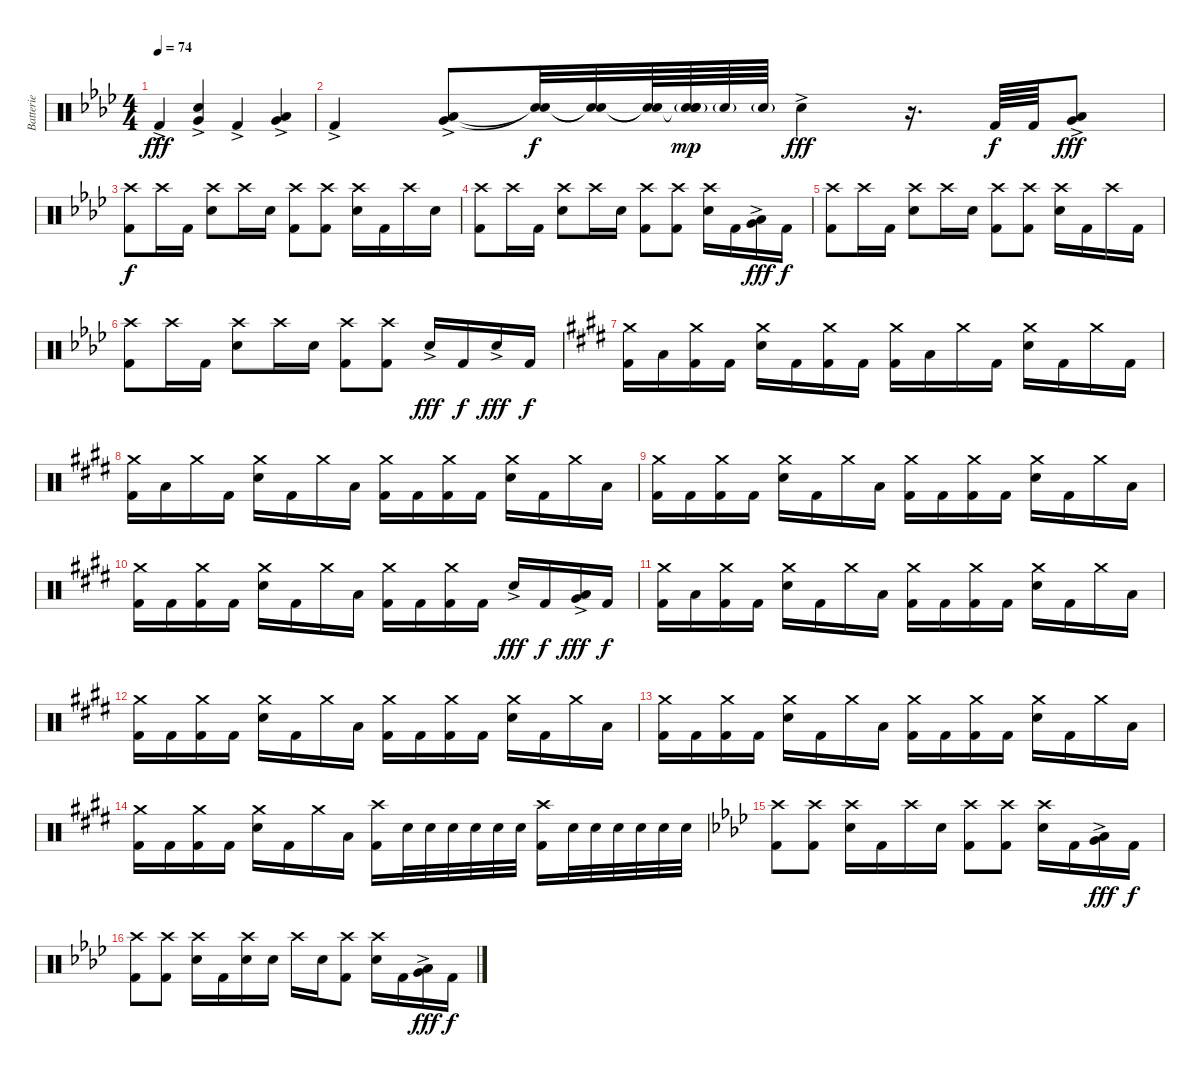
\track ("Batterie" "Batterie") {instrument percussion}
\staff {score}
\articulation defaults
\ts (4 4)
\tempo 74
\clef neutral
\ks fminor "Kick (hit) 2"{ac}.4{dy fff}
("Snare (hit) 2" "Very Low Tom (hit)"{ac}).4 "Kick (hit) 2"{ac}.4 ("Low Tom (hit)" "Very Low Tom (hit)"{ac}).4 |
"Kick (hit) 2"{ac}.4 ("Low Tom (hit)" "Very Low Tom (hit)"{ac}).8 ("Snare (hit)"{t} "Snare (hit)"{t}).32{dy f} ("Snare (hit)"{t} "Snare (hit)"{t}).32 ("Snare (hit)"{t} "Snare (hit)"{t}).64 ("Snare (hit) 2"{g} "Snare (hit)"{t} "Snare (hit)"{t}).64{dy mp} "Snare (hit) 2"{g}.64 "Snare (hit) 2"{g}.64 "Snare (hit) 2"{ac}.4{dy fff} r.16{d} "Kick (hit) 2".64{dy f} "Kick (hit) 2".64 ("Low Tom (hit)"{ac} "Very Low Tom (hit)"{ac}).8{dy fff} |
("Crash high (hit)" "Kick (hit) 2").8{dy f} "Crash high (hit)".16 "Kick (hit) 2".16 ("Crash high (hit)" "Snare (hit) 2").8 "Crash high (hit)".16 "Snare (hit) 2".16 ("Crash high (hit)" "Kick (hit) 2").8 ("Crash high (hit)" "Kick (hit) 2").8 ("Crash high (hit)" "Snare (hit) 2").16 "Kick (hit) 2".16 "Crash high (hit)".16 "Snare (hit) 2".16 |
("Crash high (hit)" "Kick (hit) 2").8 "Crash high (hit)".16 "Kick (hit) 2".16 ("Crash high (hit)" "Snare (hit) 2").8 "Crash high (hit)".16 "Snare (hit) 2".16 ("Crash high (hit)" "Kick (hit) 2").8 ("Crash high (hit)" "Kick (hit) 2").8 ("Crash high (hit)" "Snare (hit) 2").16 "Kick (hit) 2".16 ("Low Tom (hit)" "Very Low Tom (hit)"{ac}).16{dy fff} "Kick (hit) 2".16{dy f} |
("Crash high (hit)" "Kick (hit) 2").8 "Crash high (hit)".16 "Kick (hit) 2".16 ("Crash high (hit)" "Snare (hit) 2").8 "Crash high (hit)".16 "Snare (hit) 2".16 ("Crash high (hit)" "Kick (hit) 2").8 ("Crash high (hit)" "Kick (hit) 2").8 ("Crash high (hit)" "Snare (hit) 2").16 "Kick (hit) 2".16 "Crash high (hit)".16 "Kick (hit) 2".16 |
("Crash high (hit)" "Kick (hit) 2").8 "Crash high (hit)".16 "Kick (hit) 2".16 ("Crash high (hit)" "Snare (hit) 2").8 "Crash high (hit)".16 "Snare (hit) 2".16 ("Crash high (hit)" "Kick (hit) 2").8 ("Crash high (hit)" "Kick (hit) 2").8 "Snare (hit) 2"{ac}.16{dy fff} "Kick (hit) 2".16{dy f} "Snare (hit) 2"{ac}.16{dy fff} "Kick (hit) 2".16{dy f} |
\section ("" "")
\ks c#minor
("Crash medium (hit)" "Kick (hit) 2").16 "Low Tom (hit)".16 ("Crash medium (hit)" "Kick (hit) 2").16 "Kick (hit) 2".16 ("Crash medium (hit)" "Snare (hit) 2").16 "Kick (hit) 2".16 ("Crash medium (hit)" "Kick (hit) 2").16 "Kick (hit) 2".16 ("Crash medium (hit)" "Kick (hit) 2").16 "Low Tom (hit)".16 "Crash medium (hit)".16 "Kick (hit) 2".16 ("Crash medium (hit)" "Snare (hit) 2").16 "Kick (hit) 2".16 "Crash medium (hit)".16 "Kick (hit) 2".16 |
("Crash medium (hit)" "Kick (hit) 2").16 "Low Tom (hit)".16 "Crash medium (hit)".16 "Kick (hit) 2".16 ("Crash medium (hit)" "Snare (hit) 2").16 "Kick (hit) 2".16 "Crash medium (hit)".16 "Low Tom (hit)".16 ("Crash medium (hit)" "Kick (hit) 2").16 "Kick (hit) 2".16 ("Crash medium (hit)" "Kick (hit) 2").16 "Kick (hit) 2".16 ("Crash medium (hit)" "Snare (hit) 2").16 "Kick (hit) 2".16 "Crash medium (hit)".16 "Low Tom (hit)".16 |
("Crash medium (hit)" "Kick (hit) 2").16 "Kick (hit) 2".16 ("Crash medium (hit)" "Kick (hit) 2").16 "Kick (hit) 2".16 ("Crash medium (hit)" "Snare (hit) 2").16 "Kick (hit) 2".16 "Crash medium (hit)".16 "Low Tom (hit)".16 ("Crash medium (hit)" "Kick (hit) 2").16 "Kick (hit) 2".16 ("Crash medium (hit)" "Kick (hit) 2").16 "Kick (hit) 2".16 ("Crash medium (hit)" "Snare (hit) 2").16 "Kick (hit) 2".16 "Crash medium (hit)".16 "Low Tom (hit)".16 |
("Crash medium (hit)" "Kick (hit) 2").16 "Kick (hit) 2".16 ("Crash medium (hit)" "Kick (hit) 2").16 "Kick (hit) 2".16 ("Crash medium (hit)" "Snare (hit) 2").16 "Kick (hit) 2".16 "Crash medium (hit)".16 "Low Tom (hit)".16 ("Crash medium (hit)" "Kick (hit) 2").16 "Kick (hit) 2".16 ("Crash medium (hit)" "Kick (hit) 2").16 "Kick (hit) 2".16 "Snare (hit) 2"{ac}.16{dy fff} "Kick (hit) 2".16{dy f} ("Low Tom (hit)" "Very Low Tom (hit)"{ac}).16{dy fff} "Kick (hit) 2".16{dy f} |
("Crash medium (hit)" "Kick (hit) 2").16 "Low Tom (hit)".16 ("Crash medium (hit)" "Kick (hit) 2").16 "Kick (hit) 2".16 ("Crash medium (hit)" "Snare (hit) 2").16 "Kick (hit) 2".16 "Crash medium (hit)".16 "Low Tom (hit)".16 ("Crash medium (hit)" "Kick (hit) 2").16 "Kick (hit) 2".16 ("Crash medium (hit)" "Kick (hit) 2").16 "Kick (hit) 2".16 ("Crash medium (hit)" "Snare (hit) 2").16 "Kick (hit) 2".16 "Crash medium (hit)".16 "Low Tom (hit)".16 |
("Crash medium (hit)" "Kick (hit) 2").16 "Kick (hit) 2".16 ("Crash medium (hit)" "Kick (hit) 2").16 "Kick (hit) 2".16 ("Crash medium (hit)" "Snare (hit) 2").16 "Kick (hit) 2".16 "Crash medium (hit)".16 "Low Tom (hit)".16 ("Crash medium (hit)" "Kick (hit) 2").16 "Kick (hit) 2".16 ("Crash medium (hit)" "Kick (hit) 2").16 "Kick (hit) 2".16 ("Crash medium (hit)" "Snare (hit) 2").16 "Kick (hit) 2".16 "Crash medium (hit)".16 "Low Tom (hit)".16 |
("Crash medium (hit)" "Kick (hit) 2").16 "Kick (hit) 2".16 ("Crash medium (hit)" "Kick (hit) 2").16 "Kick (hit) 2".16 ("Crash medium (hit)" "Snare (hit) 2").16 "Kick (hit) 2".16 "Crash medium (hit)".16 "Low Tom (hit)".16 ("Crash medium (hit)" "Kick (hit) 2").16 "Kick (hit) 2".16 ("Crash medium (hit)" "Kick (hit) 2").16 "Kick (hit) 2".16 ("Crash medium (hit)" "Snare (hit) 2").16 "Kick (hit) 2".16 "Crash medium (hit)".16 "Low Tom (hit)".16 |
("Crash medium (hit)" "Kick (hit) 2").16 "Kick (hit) 2".16 ("Crash medium (hit)" "Kick (hit) 2").16 "Kick (hit) 2".16 ("Crash medium (hit)" "Snare (hit) 2").16 "Kick (hit) 2".16 "Crash medium (hit)".16 "Low Tom (hit)".16 ("Crash high (hit)" "Kick (hit) 2").16 "Snare (hit) 2".32 "Snare (hit) 2".32 "Snare (hit) 2".32 "Snare (hit) 2".32 "Snare (hit) 2".32 "Snare (hit) 2".32 ("Crash high (hit)" "Kick (hit) 2").16 "Snare (hit) 2".32 "Snare (hit) 2".32 "Snare (hit) 2".32 "Snare (hit) 2".32 "Snare (hit) 2".32 "Snare (hit) 2".32 |
\section ("" "")
\ks fminor
("Crash high (hit)" "Kick (hit) 2").8 ("Crash high (hit)" "Kick (hit) 2").8 ("Crash high (hit)" "Snare (hit) 2").16 "Kick (hit) 2".16 "Crash high (hit)".16 "Snare (hit) 2".16 ("Crash high (hit)" "Kick (hit) 2").8 ("Crash high (hit)" "Kick (hit) 2").8 ("Crash high (hit)" "Snare (hit) 2").16 "Kick (hit) 2".16 ("Low Tom (hit)"{ac} "Very Low Tom (hit)").16{dy fff} "Kick (hit) 2".16{dy f} |
("Crash high (hit)" "Kick (hit) 2").8 ("Crash high (hit)" "Kick (hit) 2").8 ("Crash high (hit)" "Snare (hit) 2").16 "Kick (hit) 2".16 ("Crash high (hit)" "Snare (hit) 2").16 "Snare (hit) 2".16 "Crash high (hit)".16 "Snare (hit) 2".16 ("Crash high (hit)" "Kick (hit) 2").8 ("Crash high (hit)" "Snare (hit) 2").16 "Kick (hit) 2".16 ("Low Tom (hit)" "Very Low Tom (hit)"{ac}).16{dy fff} "Kick (hit) 2".16{dy f}
